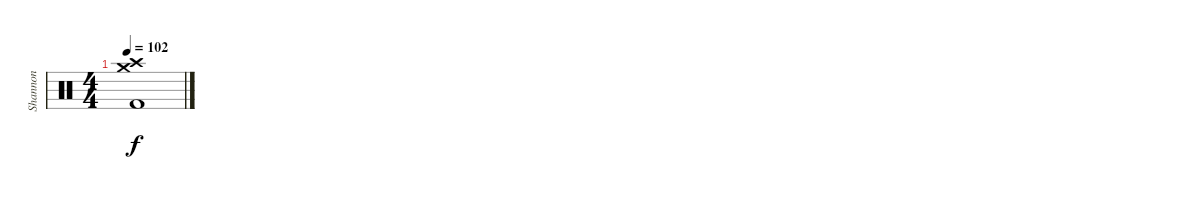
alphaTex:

\track ("Shannon" "Shannon") {instrument percussion}
\staff {score}
\articulation defaults
\ts (4 4)
\tempo 102
\clef neutral
\ks c
("Crash high (hit)" "Crash medium (hit)" "Kick (hit) 2").1{dy f}
